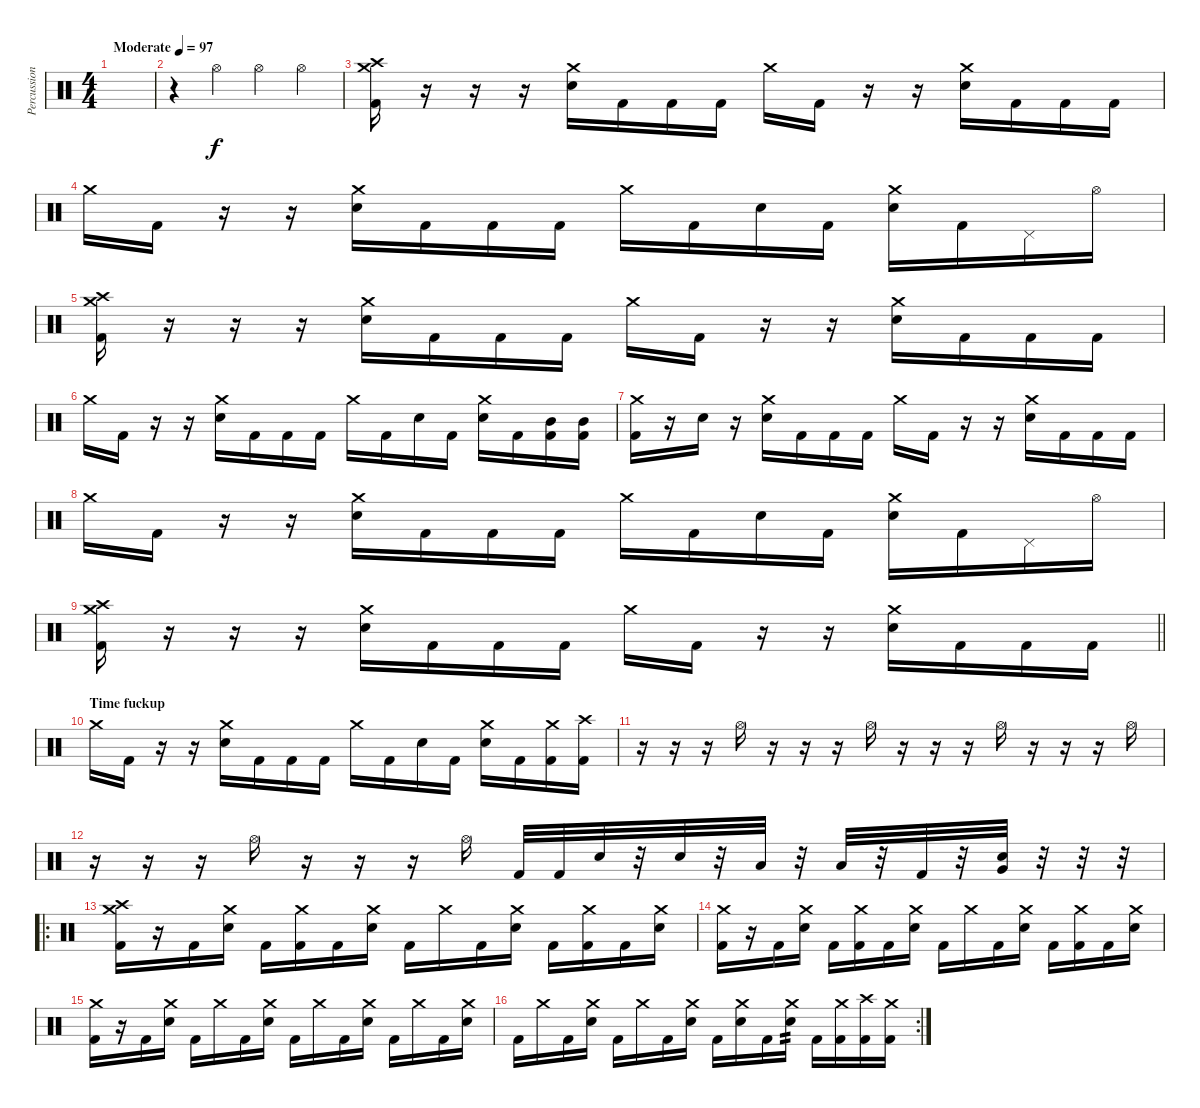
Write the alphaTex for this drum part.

\track ("Percussion" "Percussion") {instrument percussion}
\staff {score}
\articulation defaults
\ts (4 4)
\tempo (97 "Moderate")
\clef neutral
\ks c
|
r.4 "Hi-Hat (open)".4 "Hi-Hat (open)".4 "Hi-Hat (open)".4 |
("Crash medium (hit)" "Crash high (hit)" "Kick (hit) 2").16 r.16 r.16 r.16 ("Crash medium (hit)" "Snare (hit) 2").16 "Kick (hit) 2".16 "Kick (hit) 2".16 "Kick (hit) 2".16 "Crash medium (hit)".16 "Kick (hit) 2".16 r.16 r.16 ("Crash medium (hit)" "Snare (hit) 2").16 "Kick (hit) 2".16 "Kick (hit) 2".16 "Kick (hit) 2".16 |
"Crash medium (hit)".16 "Kick (hit) 2".16 r.16 r.16 ("Crash medium (hit)" "Snare (hit) 2").16 "Kick (hit) 2".16 "Kick (hit) 2".16 "Kick (hit) 2".16 "Crash medium (hit)".16 "Kick (hit) 2".16 "Snare (hit) 2".16 "Kick (hit) 2".16 ("Crash medium (hit)" "Snare (hit) 2").16 "Kick (hit) 2".16 "Pedal Hi-Hat (hit)".16 "Hi-Hat (open)".16 |
("Crash medium (hit)" "Crash high (hit)" "Kick (hit) 2").16 r.16 r.16 r.16 ("Crash medium (hit)" "Snare (hit) 2").16 "Kick (hit) 2".16 "Kick (hit) 2".16 "Kick (hit) 2".16 "Crash medium (hit)".16 "Kick (hit) 2".16 r.16 r.16 ("Crash medium (hit)" "Snare (hit) 2").16 "Kick (hit) 2".16 "Kick (hit) 2".16 "Kick (hit) 2".16 |
"Crash medium (hit)".16 "Kick (hit) 2".16 r.16 r.16 ("Crash medium (hit)" "Snare (hit) 2").16 "Kick (hit) 2".16 "Kick (hit) 2".16 "Kick (hit) 2".16 "Crash medium (hit)".16 "Kick (hit) 2".16 "Snare (hit) 2".16 "Kick (hit) 2".16 ("Crash medium (hit)" "Snare (hit) 2").16 "Kick (hit) 2".16 ("Mid Tom (hit)" "Kick (hit) 2").16 ("Mid Tom (hit)" "Kick (hit) 2").16 |
("Crash medium (hit)" "Kick (hit) 2").16 r.16 "Snare (hit) 2".16 r.16 ("Crash medium (hit)" "Snare (hit) 2").16 "Kick (hit) 2".16 "Kick (hit) 2".16 "Kick (hit) 2".16 "Crash medium (hit)".16 "Kick (hit) 2".16 r.16 r.16 ("Crash medium (hit)" "Snare (hit) 2").16 "Kick (hit) 2".16 "Kick (hit) 2".16 "Kick (hit) 2".16 |
"Crash medium (hit)".16 "Kick (hit) 2".16 r.16 r.16 ("Crash medium (hit)" "Snare (hit) 2").16 "Kick (hit) 2".16 "Kick (hit) 2".16 "Kick (hit) 2".16 "Crash medium (hit)".16 "Kick (hit) 2".16 "Snare (hit) 2".16 "Kick (hit) 2".16 ("Crash medium (hit)" "Snare (hit) 2").16 "Kick (hit) 2".16 "Pedal Hi-Hat (hit)".16 "Hi-Hat (open)".16 |
\barLineRight lightlight
("Crash medium (hit)" "Crash high (hit)" "Kick (hit) 2").16 r.16 r.16 r.16 ("Crash medium (hit)" "Snare (hit) 2").16 "Kick (hit) 2".16 "Kick (hit) 2".16 "Kick (hit) 2".16 "Crash medium (hit)".16 "Kick (hit) 2".16 r.16 r.16 ("Crash medium (hit)" "Snare (hit) 2").16 "Kick (hit) 2".16 "Kick (hit) 2".16 "Kick (hit) 2".16 |
\section ("" "Time fuckup")
"Crash medium (hit)".16 "Kick (hit) 2".16 r.16 r.16 ("Crash medium (hit)" "Snare (hit) 2").16 "Kick (hit) 2".16 "Kick (hit) 2".16 "Kick (hit) 2".16 "Crash medium (hit)".16 "Kick (hit) 2".16 "Snare (hit) 2".16 "Kick (hit) 2".16 ("Crash medium (hit)" "Snare (hit) 2").16 "Kick (hit) 2".16 ("Crash medium (hit)" "Kick (hit) 2").16 ("Crash high (hit)" "Kick (hit) 2").16 |
r.16 r.16 r.16 "Hi-Hat (open)".16 r.16 r.16 r.16 "Hi-Hat (open)".16 r.16 r.16 r.16 "Hi-Hat (open)".16 r.16 r.16 r.16 "Hi-Hat (open)".16 |
r.16 r.16 r.16 "Hi-Hat (open)".16 r.16 r.16 r.16 "Hi-Hat (open)".16 "Kick (hit) 2".32 "Kick (hit) 2".32 "Snare (hit) 2".32 r.32 "Snare (hit) 2".32 r.32 "Low Tom (hit)".32 r.32 "Low Tom (hit)".32 r.32 "Kick (hit) 2".32 r.32 ("Very Low Tom (hit)" "Snare (hit) 2").32 r.32 r.32 r.32 |
\ro
("Crash medium (hit)" "Crash high (hit)" "Kick (hit) 2").16 r.16 "Kick (hit) 2".16 ("Crash medium (hit)" "Snare (hit) 2").16 "Kick (hit) 2".16 ("Crash medium (hit)" "Kick (hit) 2").16 "Kick (hit) 2".16 ("Crash medium (hit)" "Snare (hit) 2").16 "Kick (hit) 2".16 "Crash medium (hit)".16 "Kick (hit) 2".16 ("Crash medium (hit)" "Snare (hit) 2").16 "Kick (hit) 2".16 ("Crash medium (hit)" "Kick (hit) 2").16 "Kick (hit) 2".16 ("Crash medium (hit)" "Snare (hit) 2").16 |
("Crash medium (hit)" "Kick (hit) 2").16 r.16 "Kick (hit) 2".16 ("Crash medium (hit)" "Snare (hit) 2").16 "Kick (hit) 2".16 ("Crash medium (hit)" "Kick (hit) 2").16 "Kick (hit) 2".16 ("Crash medium (hit)" "Snare (hit) 2").16 "Kick (hit) 2".16 "Crash medium (hit)".16 "Kick (hit) 2".16 ("Crash medium (hit)" "Snare (hit) 2").16 "Kick (hit) 2".16 ("Crash medium (hit)" "Kick (hit) 2").16 "Kick (hit) 2".16 ("Crash medium (hit)" "Snare (hit) 2").16 |
("Crash medium (hit)" "Kick (hit) 2").16 r.16 "Kick (hit) 2".16 ("Crash medium (hit)" "Snare (hit) 2").16 "Kick (hit) 2".16 "Crash medium (hit)".16 "Kick (hit) 2".16 ("Crash medium (hit)" "Snare (hit) 2").16 "Kick (hit) 2".16 "Crash medium (hit)".16 "Kick (hit) 2".16 ("Crash medium (hit)" "Snare (hit) 2").16 "Kick (hit) 2".16 "Crash medium (hit)".16 "Kick (hit) 2".16 ("Crash medium (hit)" "Snare (hit) 2").16 |
\rc 2 "Kick (hit) 2".16 "Crash medium (hit)".16 "Kick (hit) 2".16
("Crash medium (hit)" "Snare (hit) 2").16 "Kick (hit) 2".16 "Crash medium (hit)".16 "Kick (hit) 2".16 ("Crash medium (hit)" "Snare (hit) 2").16 "Kick (hit) 2".16 ("Crash medium (hit)" "Snare (hit) 2").16 "Kick (hit) 2".16 ("Crash medium (hit)" "Snare (hit) 2").16{tp 2} "Kick (hit) 2".16 ("Crash medium (hit)" "Kick (hit) 2").16 ("Crash high (hit)" "Kick (hit) 2").16 ("Crash medium (hit)" "Kick (hit) 2").16
